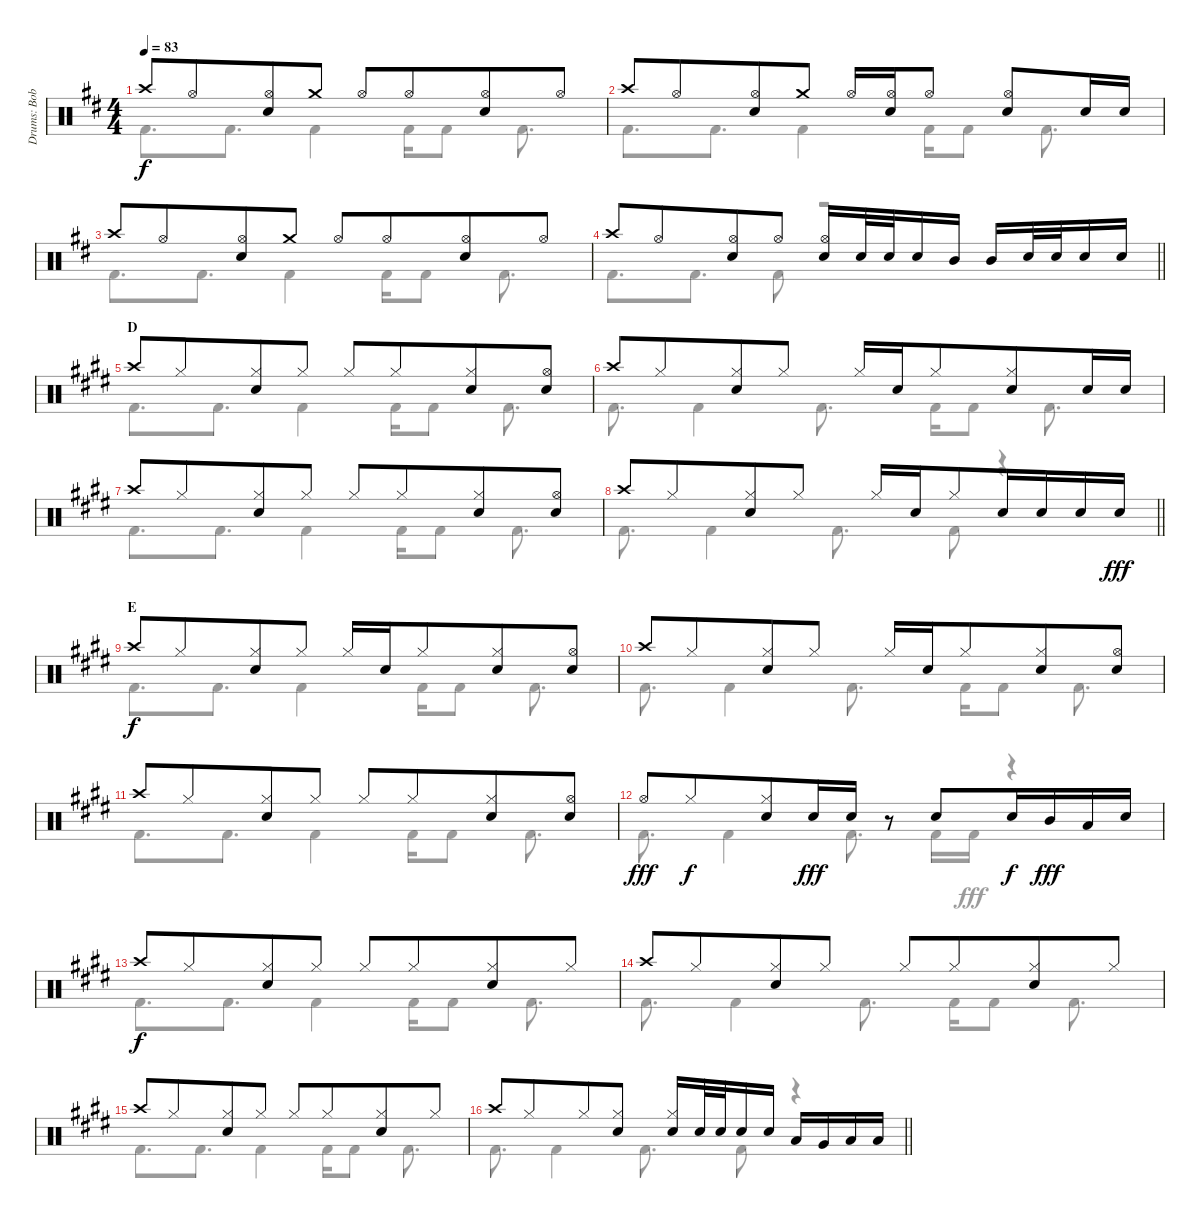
\track ("Drums: Bobby" "Drums: Bob") {instrument percussion}
\staff {score}
\articulation defaults
\voice
\ts (4 4)
\tempo 83
\clef neutral
\ks d "Crash high (hit)".8{dy f} "Hi-Hat (open)".8{beam merge}
("Hi-Hat (open)" "Snare (hit) 2").8 "Crash medium (hit)".8 "Hi-Hat (open)".8 "Hi-Hat (open)".8{beam merge} ("Hi-Hat (open)" "Snare (hit) 2").8 "Hi-Hat (open)".8 |
"Crash high (hit)".8 "Hi-Hat (open)".8{beam merge} ("Hi-Hat (open)" "Snare (hit) 2").8 "Crash medium (hit)".8 "Hi-Hat (open)".16{beam merge} ("Hi-Hat (open)" "Snare (hit) 2").16 "Hi-Hat (open)".8 ("Hi-Hat (open)" "Snare (hit) 2").8 "Snare (hit) 2".16 "Snare (hit) 2".16 |
"Crash high (hit)".8 "Hi-Hat (open)".8{beam merge} ("Hi-Hat (open)" "Snare (hit) 2").8 "Crash medium (hit)".8 "Hi-Hat (open)".8 "Hi-Hat (open)".8{beam merge} ("Hi-Hat (open)" "Snare (hit) 2").8 "Hi-Hat (open)".8 |
\barLineRight lightlight "Crash high (hit)".8 "Hi-Hat (open)".8{beam merge}
("Hi-Hat (open)" "Snare (hit) 2").8 "Hi-Hat (open)".8 ("Hi-Hat (open)" "Snare (hit) 2").16{beam merge} "Snare (hit) 2".32 "Snare (hit) 2".32 "Snare (hit) 2".16 "Mid Tom (hit)".16 "Mid Tom (hit)".16 "Electric Snare (hit)".32 "Electric Snare (hit)".32 "Snare (hit) 2".16 "Snare (hit) 2".16 |
\section ("" "D")
\ks e "Crash high (hit)".8 "Hi-Hat (closed)".8{beam merge}
("Hi-Hat (closed)" "Snare (hit) 2").8 "Hi-Hat (closed)".8 "Hi-Hat (closed)".8 "Hi-Hat (closed)".8{beam merge} ("Hi-Hat (closed)" "Snare (hit) 2").8 ("Hi-Hat (open)" "Snare (hit) 2").8 |
"Crash high (hit)".8 "Hi-Hat (closed)".8{beam merge} ("Hi-Hat (closed)" "Snare (hit) 2").8 "Hi-Hat (closed)".8 "Hi-Hat (closed)".16{beam merge} "Snare (hit) 2".16 "Hi-Hat (closed)".8{beam merge} ("Hi-Hat (closed)" "Snare (hit) 2").8 "Snare (hit) 2".16 "Snare (hit) 2".16 |
"Crash high (hit)".8 "Hi-Hat (closed)".8{beam merge} ("Hi-Hat (closed)" "Snare (hit) 2").8 "Hi-Hat (closed)".8 "Hi-Hat (closed)".8 "Hi-Hat (closed)".8{beam merge} ("Hi-Hat (closed)" "Snare (hit) 2").8 ("Hi-Hat (open)" "Snare (hit) 2").8 |
\barLineRight lightlight "Crash high (hit)".8 "Hi-Hat (closed)".8{beam merge}
("Hi-Hat (closed)" "Snare (hit) 2").8 "Hi-Hat (closed)".8 "Hi-Hat (closed)".16 "Snare (hit) 2".16 "Hi-Hat (closed)".8{beam merge} "Snare (hit) 2".16 "Snare (hit) 2".16 "Snare (hit) 2".16 "Snare (hit) 2".16{dy fff} |
\section ("" "E")
"Crash high (hit)".8{dy f} "Hi-Hat (closed)".8{beam merge} ("Hi-Hat (closed)" "Snare (hit) 2").8 "Hi-Hat (closed)".8 "Hi-Hat (closed)".16 "Snare (hit) 2".16 "Hi-Hat (closed)".8{beam merge} ("Hi-Hat (closed)" "Snare (hit) 2").8 ("Hi-Hat (open)" "Snare (hit) 2").8 |
"Crash high (hit)".8 "Hi-Hat (closed)".8{beam merge} ("Hi-Hat (closed)" "Snare (hit) 2").8 "Hi-Hat (closed)".8 "Hi-Hat (closed)".16 "Snare (hit) 2".16 "Hi-Hat (closed)".8{beam merge} ("Hi-Hat (closed)" "Snare (hit) 2").8 ("Hi-Hat (open)" "Snare (hit) 2").8 |
"Crash high (hit)".8 "Hi-Hat (closed)".8{beam merge} ("Hi-Hat (closed)" "Snare (hit) 2").8 "Hi-Hat (closed)".8 "Hi-Hat (closed)".8 "Hi-Hat (closed)".8{beam merge} ("Hi-Hat (closed)" "Snare (hit) 2").8 ("Hi-Hat (open)" "Snare (hit) 2").8 |
"Hi-Hat (open)".8{dy fff} "Hi-Hat (closed)".8{dy f beam merge} ("Hi-Hat (closed)" "Snare (hit) 2").8 "Snare (hit) 2".16{dy fff} "Snare (hit) 2".16 r.8 "Snare (hit) 2".8{beam merge} "Snare (hit) 2".16{dy f} "Mid Tom (hit)".16{dy fff} "Low Tom (hit)".16 "Snare (hit) 2".16 |
"Crash high (hit)".8{dy f} "Hi-Hat (closed)".8{beam merge} ("Hi-Hat (closed)" "Snare (hit) 2").8 "Hi-Hat (closed)".8 "Hi-Hat (closed)".8 "Hi-Hat (closed)".8{beam merge} ("Hi-Hat (closed)" "Snare (hit) 2").8 "Hi-Hat (closed)".8 |
"Crash high (hit)".8 "Hi-Hat (closed)".8{beam merge} ("Hi-Hat (closed)" "Snare (hit) 2").8 "Hi-Hat (closed)".8 "Hi-Hat (closed)".8 "Hi-Hat (closed)".8{beam merge} ("Hi-Hat (closed)" "Snare (hit) 2").8 "Hi-Hat (closed)".8 |
"Crash high (hit)".8 "Hi-Hat (closed)".8{beam merge} ("Hi-Hat (closed)" "Snare (hit) 2").8 "Hi-Hat (closed)".8 "Hi-Hat (closed)".8 "Hi-Hat (closed)".8{beam merge} ("Hi-Hat (closed)" "Snare (hit) 2").8 "Hi-Hat (closed)".8 |
\barLineRight lightlight "Crash high (hit)".8 "Hi-Hat (closed)".8{beam merge} "Hi-Hat (closed)".8
("Hi-Hat (closed)" "Snare (hit) 2").8 ("Hi-Hat (closed)" "Snare (hit) 2").16 "Snare (hit) 2".32 "Snare (hit) 2".32{beam merge} "Snare (hit) 2".16 "Snare (hit) 2".16 "Low Tom (hit)".16 "Very Low Tom (hit)".16 "Low Tom (hit)".16 "Low Tom (hit)".16
\voice
\clef neutral
\ottava regular
\simile none
\ks d "Kick (hit) 2".8{d dy f} "Kick (hit) 2".8{d} "Kick (hit) 2".4 "Kick (hit) 2".16 "Kick (hit) 2".8 "Kick (hit) 2".8{d}
|
"Kick (hit) 2".8{d} "Kick (hit) 2".8{d} "Kick (hit) 2".4 "Kick (hit) 2".16 "Kick (hit) 2".8 "Kick (hit) 2".8{d} |
"Kick (hit) 2".8{d} "Kick (hit) 2".8{d} "Kick (hit) 2".4 "Kick (hit) 2".16 "Kick (hit) 2".8 "Kick (hit) 2".8{d} |
\barLineRight lightlight "Kick (hit) 2".8{d} "Kick (hit) 2".8{d} "Kick (hit) 2".8
r.2 |
\ks e "Kick (hit) 2".8{d} "Kick (hit) 2".8{d} "Kick (hit) 2".4 "Kick (hit) 2".16 "Kick (hit) 2".8 "Kick (hit) 2".8{d}
|
"Kick (hit) 2".8{d} "Kick (hit) 2".4 "Kick (hit) 2".8{d} "Kick (hit) 2".16 "Kick (hit) 2".8 "Kick (hit) 2".8{d} |
"Kick (hit) 2".8{d} "Kick (hit) 2".8{d} "Kick (hit) 2".4 "Kick (hit) 2".16 "Kick (hit) 2".8 "Kick (hit) 2".8{d} |
\barLineRight lightlight "Kick (hit) 2".8{d} "Kick (hit) 2".4 "Kick (hit) 2".8{d} "Kick (hit) 2".8
r.4 |
"Kick (hit) 2".8{d} "Kick (hit) 2".8{d} "Kick (hit) 2".4 "Kick (hit) 2".16 "Kick (hit) 2".8 "Kick (hit) 2".8{d} |
"Kick (hit) 2".8{d} "Kick (hit) 2".4 "Kick (hit) 2".8{d} "Kick (hit) 2".16 "Kick (hit) 2".8 "Kick (hit) 2".8{d} |
"Kick (hit) 2".8{d} "Kick (hit) 2".8{d} "Kick (hit) 2".4 "Kick (hit) 2".16 "Kick (hit) 2".8 "Kick (hit) 2".8{d} |
"Kick (hit) 2".8{d} "Kick (hit) 2".4 "Kick (hit) 2".8{d} "Kick (hit) 2".16 "Kick (hit) 2".16{dy fff} r.4 |
"Kick (hit) 2".8{d dy f} "Kick (hit) 2".8{d} "Kick (hit) 2".4 "Kick (hit) 2".16 "Kick (hit) 2".8 "Kick (hit) 2".8{d} |
"Kick (hit) 2".8{d} "Kick (hit) 2".4 "Kick (hit) 2".8{d} "Kick (hit) 2".16 "Kick (hit) 2".8 "Kick (hit) 2".8{d} |
"Kick (hit) 2".8{d} "Kick (hit) 2".8{d} "Kick (hit) 2".4 "Kick (hit) 2".16 "Kick (hit) 2".8 "Kick (hit) 2".8{d} |
\barLineRight lightlight "Kick (hit) 2".8{d} "Kick (hit) 2".4 "Kick (hit) 2".8{d} "Kick (hit) 2".8
r.4
